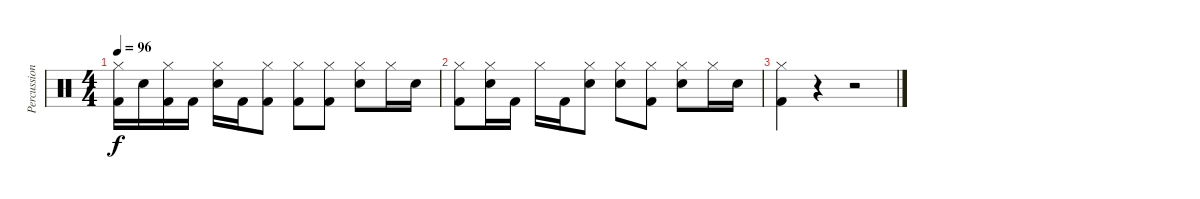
\track ("Percussions" "Percussion") {instrument percussion}
\staff {score}
\articulation defaults
\ts (4 4)
\tempo 96
\clef neutral
\ks c
("Hi-Hat (closed)" "Kick (hit) 2").16{dy f} "Snare (hit) 2".16 ("Hi-Hat (closed)" "Kick (hit) 2").16 "Kick (hit) 2".16 ("Hi-Hat (closed)" "Snare (hit) 2").16 "Kick (hit) 2".16 ("Hi-Hat (closed)" "Kick (hit) 2").8 ("Hi-Hat (closed)" "Kick (hit) 2").8 ("Kick (hit) 2" "Hi-Hat (closed)").8 ("Hi-Hat (closed)" "Snare (hit) 2").8 "Hi-Hat (closed)".16 "Snare (hit) 2".16 |
("Hi-Hat (closed)" "Kick (hit) 2").8 ("Hi-Hat (closed)" "Snare (hit) 2").16 "Kick (hit) 2".16 "Hi-Hat (closed)".16 "Kick (hit) 2".16 ("Hi-Hat (closed)" "Snare (hit) 2").8 ("Hi-Hat (closed)" "Snare (hit) 2").8 ("Kick (hit) 2" "Hi-Hat (closed)").8 ("Hi-Hat (closed)" "Snare (hit) 2").8 "Hi-Hat (closed)".16 "Snare (hit) 2".16 |
("Hi-Hat (closed)" "Kick (hit) 2").4 r.4 r.2
